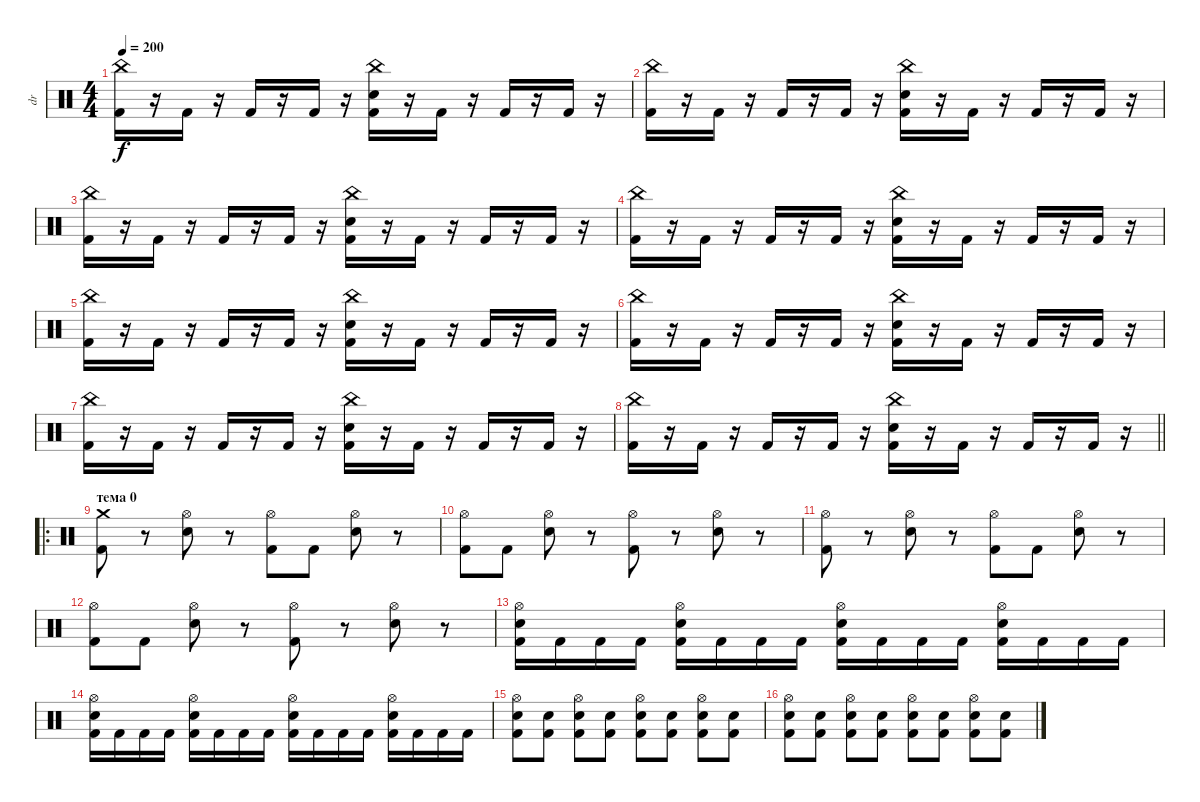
\track ("dr" "dr") {instrument percussion}
\staff {score}
\articulation defaults
\ts (4 4)
\tempo 200
\clef neutral
\ks c
("China (hit)" "Kick (hit) 2").16{dy f} r.16 "Kick (hit) 2".16 r.16 "Kick (hit) 2".16 r.16 "Kick (hit) 2".16 r.16 ("China (hit)" "Electric Snare (hit)" "Kick (hit) 2").16 r.16 "Kick (hit) 2".16 r.16 "Kick (hit) 2".16 r.16 "Kick (hit) 2".16 r.16 |
("China (hit)" "Kick (hit) 2").16 r.16 "Kick (hit) 2".16 r.16 "Kick (hit) 2".16 r.16 "Kick (hit) 2".16 r.16 ("China (hit)" "Electric Snare (hit)" "Kick (hit) 2").16 r.16 "Kick (hit) 2".16 r.16 "Kick (hit) 2".16 r.16 "Kick (hit) 2".16 r.16 |
("China (hit)" "Kick (hit) 2").16 r.16 "Kick (hit) 2".16 r.16 "Kick (hit) 2".16 r.16 "Kick (hit) 2".16 r.16 ("China (hit)" "Electric Snare (hit)" "Kick (hit) 2").16 r.16 "Kick (hit) 2".16 r.16 "Kick (hit) 2".16 r.16 "Kick (hit) 2".16 r.16 |
("China (hit)" "Kick (hit) 2").16 r.16 "Kick (hit) 2".16 r.16 "Kick (hit) 2".16 r.16 "Kick (hit) 2".16 r.16 ("China (hit)" "Electric Snare (hit)" "Kick (hit) 2").16 r.16 "Kick (hit) 2".16 r.16 "Kick (hit) 2".16 r.16 "Kick (hit) 2".16 r.16 |
("China (hit)" "Kick (hit) 2").16 r.16 "Kick (hit) 2".16 r.16 "Kick (hit) 2".16 r.16 "Kick (hit) 2".16 r.16 ("China (hit)" "Electric Snare (hit)" "Kick (hit) 2").16 r.16 "Kick (hit) 2".16 r.16 "Kick (hit) 2".16 r.16 "Kick (hit) 2".16 r.16 |
("China (hit)" "Kick (hit) 2").16 r.16 "Kick (hit) 2".16 r.16 "Kick (hit) 2".16 r.16 "Kick (hit) 2".16 r.16 ("China (hit)" "Electric Snare (hit)" "Kick (hit) 2").16 r.16 "Kick (hit) 2".16 r.16 "Kick (hit) 2".16 r.16 "Kick (hit) 2".16 r.16 |
("China (hit)" "Kick (hit) 2").16 r.16 "Kick (hit) 2".16 r.16 "Kick (hit) 2".16 r.16 "Kick (hit) 2".16 r.16 ("China (hit)" "Electric Snare (hit)" "Kick (hit) 2").16 r.16 "Kick (hit) 2".16 r.16 "Kick (hit) 2".16 r.16 "Kick (hit) 2".16 r.16 |
\barLineRight lightlight
("China (hit)" "Kick (hit) 2").16 r.16 "Kick (hit) 2".16 r.16 "Kick (hit) 2".16 r.16 "Kick (hit) 2".16 r.16 ("China (hit)" "Electric Snare (hit)" "Kick (hit) 2").16 r.16 "Kick (hit) 2".16 r.16 "Kick (hit) 2".16 r.16 "Kick (hit) 2".16 r.16 |
\ro
\section ("" "тема 0")
("Crash medium (hit)" "Kick (hit) 2").8 r.8 ("Hi-Hat (open)" "Electric Snare (hit)").8 r.8 ("Hi-Hat (open)" "Kick (hit) 2").8 "Kick (hit) 2".8 ("Hi-Hat (open)" "Electric Snare (hit)").8 r.8 |
("Hi-Hat (open)" "Kick (hit) 2").8 "Kick (hit) 2".8 ("Hi-Hat (open)" "Electric Snare (hit)").8 r.8 ("Hi-Hat (open)" "Kick (hit) 2").8 r.8 ("Hi-Hat (open)" "Electric Snare (hit)").8 r.8 |
("Hi-Hat (open)" "Kick (hit) 2").8 r.8 ("Hi-Hat (open)" "Electric Snare (hit)").8 r.8 ("Hi-Hat (open)" "Kick (hit) 2").8 "Kick (hit) 2".8 ("Hi-Hat (open)" "Electric Snare (hit)").8 r.8 |
("Hi-Hat (open)" "Kick (hit) 2").8 "Kick (hit) 2".8 ("Hi-Hat (open)" "Electric Snare (hit)").8 r.8 ("Hi-Hat (open)" "Kick (hit) 2").8 r.8 ("Hi-Hat (open)" "Electric Snare (hit)").8 r.8 |
("Hi-Hat (open)" "Electric Snare (hit)" "Kick (hit) 2").16 "Kick (hit) 2".16 "Kick (hit) 2".16 "Kick (hit) 2".16 ("Hi-Hat (open)" "Electric Snare (hit)" "Kick (hit) 2").16 "Kick (hit) 2".16 "Kick (hit) 2".16 "Kick (hit) 2".16 ("Hi-Hat (open)" "Electric Snare (hit)" "Kick (hit) 2").16 "Kick (hit) 2".16 "Kick (hit) 2".16 "Kick (hit) 2".16 ("Hi-Hat (open)" "Electric Snare (hit)" "Kick (hit) 2").16 "Kick (hit) 2".16 "Kick (hit) 2".16 "Kick (hit) 2".16 |
("Hi-Hat (open)" "Electric Snare (hit)" "Kick (hit) 2").16 "Kick (hit) 2".16 "Kick (hit) 2".16 "Kick (hit) 2".16 ("Hi-Hat (open)" "Electric Snare (hit)" "Kick (hit) 2").16 "Kick (hit) 2".16 "Kick (hit) 2".16 "Kick (hit) 2".16 ("Hi-Hat (open)" "Electric Snare (hit)" "Kick (hit) 2").16 "Kick (hit) 2".16 "Kick (hit) 2".16 "Kick (hit) 2".16 ("Hi-Hat (open)" "Electric Snare (hit)" "Kick (hit) 2").16 "Kick (hit) 2".16 "Kick (hit) 2".16 "Kick (hit) 2".16 |
("Hi-Hat (open)" "Electric Snare (hit)" "Kick (hit) 2").8 ("Electric Snare (hit)" "Kick (hit) 2").8 ("Hi-Hat (open)" "Electric Snare (hit)" "Kick (hit) 2").8 ("Electric Snare (hit)" "Kick (hit) 2").8 ("Hi-Hat (open)" "Electric Snare (hit)" "Kick (hit) 2").8 ("Electric Snare (hit)" "Kick (hit) 2").8 ("Hi-Hat (open)" "Electric Snare (hit)" "Kick (hit) 2").8 ("Electric Snare (hit)" "Kick (hit) 2").8 |
("Hi-Hat (open)" "Electric Snare (hit)" "Kick (hit) 2").8 ("Electric Snare (hit)" "Kick (hit) 2").8 ("Hi-Hat (open)" "Electric Snare (hit)" "Kick (hit) 2").8 ("Electric Snare (hit)" "Kick (hit) 2").8 ("Hi-Hat (open)" "Electric Snare (hit)" "Kick (hit) 2").8 ("Electric Snare (hit)" "Kick (hit) 2").8 ("Hi-Hat (open)" "Electric Snare (hit)" "Kick (hit) 2").8 ("Electric Snare (hit)" "Kick (hit) 2").8
